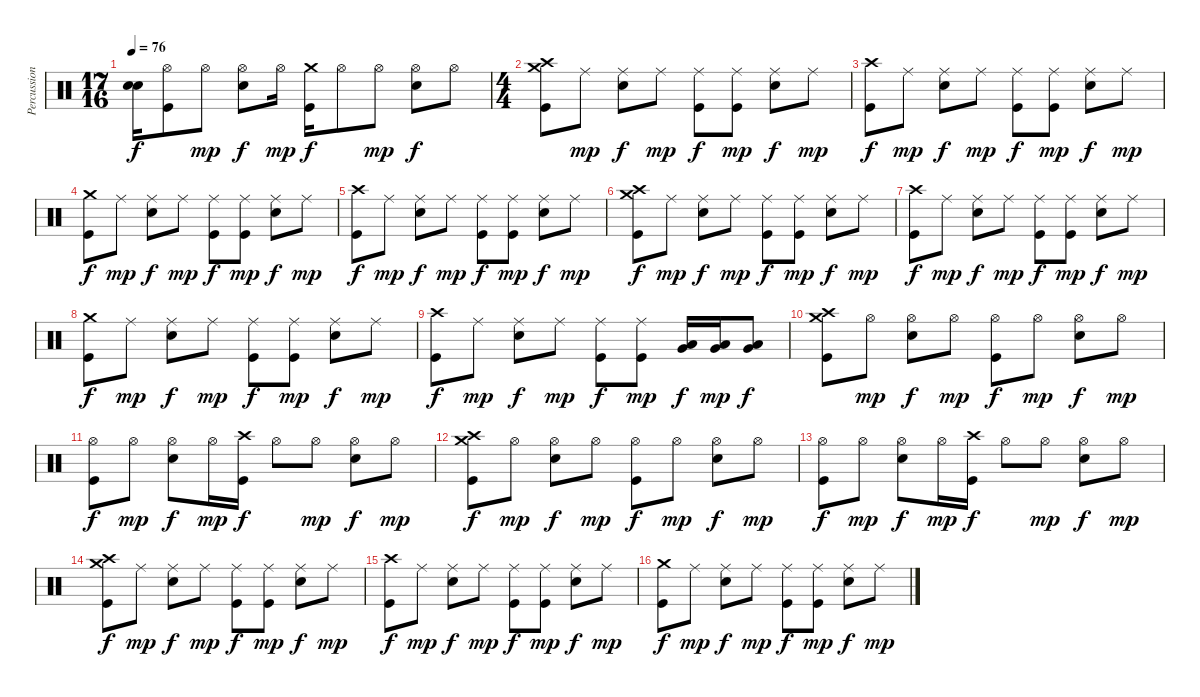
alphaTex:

\track ("Percussion" "Percussion") {instrument percussion}
\staff {score}
\articulation defaults
\ts (17 16)
\tempo 76
\clef neutral
\ks c
("Snare (hit)"{t} "Snare (hit)"{t}).16{dy f} ("Hi-Hat (open)" "Kick (hit)").8 "Hi-Hat (open)".8{dy mp} ("Hi-Hat (open)" "Electric Snare (hit)").8{dy f} "Hi-Hat (open)".16{dy mp} ("Crash medium (hit)" "Kick (hit)").16{dy f} "Hi-Hat (open)".8 "Hi-Hat (open)".8{dy mp} ("Hi-Hat (open)" "Electric Snare (hit)").8{dy f} "Hi-Hat (open)".8 |
\ts (4 4)
("Crash medium (hit)" "Crash high (hit)" "Kick (hit)").8 "Ride (middle)".8{dy mp} ("Ride (middle)" "Electric Snare (hit)").8{dy f} "Ride (middle)".8{dy mp} ("Ride (middle)" "Kick (hit)").8{dy f} ("Ride (middle)" "Kick (hit)").8{dy mp} ("Ride (middle)" "Electric Snare (hit)").8{dy f} "Ride (middle)".8{dy mp} |
("Crash high (hit)" "Kick (hit)").8{dy f} "Ride (middle)".8{dy mp} ("Ride (middle)" "Electric Snare (hit)").8{dy f} "Ride (middle)".8{dy mp} ("Ride (middle)" "Kick (hit)").8{dy f} ("Ride (middle)" "Kick (hit)").8{dy mp} ("Ride (middle)" "Electric Snare (hit)").8{dy f} "Ride (middle)".8{dy mp} |
("Crash medium (hit)" "Kick (hit)").8{dy f} "Ride (middle)".8{dy mp} ("Ride (middle)" "Electric Snare (hit)").8{dy f} "Ride (middle)".8{dy mp} ("Ride (middle)" "Kick (hit)").8{dy f} ("Ride (middle)" "Kick (hit)").8{dy mp} ("Ride (middle)" "Electric Snare (hit)").8{dy f} "Ride (middle)".8{dy mp} |
("Crash high (hit)" "Kick (hit)").8{dy f} "Ride (middle)".8{dy mp} ("Ride (middle)" "Electric Snare (hit)").8{dy f} "Ride (middle)".8{dy mp} ("Ride (middle)" "Kick (hit)").8{dy f} ("Ride (middle)" "Kick (hit)").8{dy mp} ("Ride (middle)" "Electric Snare (hit)").8{dy f} "Ride (middle)".8{dy mp} |
("Crash medium (hit)" "Crash high (hit)" "Kick (hit)").8{dy f} "Ride (middle)".8{dy mp} ("Ride (middle)" "Electric Snare (hit)").8{dy f} "Ride (middle)".8{dy mp} ("Ride (middle)" "Kick (hit)").8{dy f} ("Ride (middle)" "Kick (hit)").8{dy mp} ("Ride (middle)" "Electric Snare (hit)").8{dy f} "Ride (middle)".8{dy mp} |
("Crash high (hit)" "Kick (hit)").8{dy f} "Ride (middle)".8{dy mp} ("Ride (middle)" "Electric Snare (hit)").8{dy f} "Ride (middle)".8{dy mp} ("Ride (middle)" "Kick (hit)").8{dy f} ("Ride (middle)" "Kick (hit)").8{dy mp} ("Ride (middle)" "Electric Snare (hit)").8{dy f} "Ride (middle)".8{dy mp} |
("Crash medium (hit)" "Kick (hit)").8{dy f} "Ride (middle)".8{dy mp} ("Ride (middle)" "Electric Snare (hit)").8{dy f} "Ride (middle)".8{dy mp} ("Ride (middle)" "Kick (hit)").8{dy f} ("Ride (middle)" "Kick (hit)").8{dy mp} ("Ride (middle)" "Electric Snare (hit)").8{dy f} "Ride (middle)".8{dy mp} |
("Crash high (hit)" "Kick (hit)").8{dy f} "Ride (middle)".8{dy mp} ("Ride (middle)" "Electric Snare (hit)").8{dy f} "Ride (middle)".8{dy mp} ("Ride (middle)" "Kick (hit)").8{dy f} ("Ride (middle)" "Kick (hit)").8{dy mp} ("Low Tom (hit)" "Very Low Tom (hit)").16{dy f} ("Low Tom (hit)" "Very Low Tom (hit)").16{dy mp} ("Low Tom (hit)" "Very Low Tom (hit)").8{dy f} |
("Crash high (hit)" "Crash medium (hit)" "Kick (hit)").8 "Hi-Hat (open)".8{dy mp} ("Hi-Hat (open)" "Electric Snare (hit)").8{dy f} "Hi-Hat (open)".8{dy mp} ("Hi-Hat (open)" "Kick (hit)").8{dy f} "Hi-Hat (open)".8{dy mp} ("Hi-Hat (open)" "Electric Snare (hit)").8{dy f} "Hi-Hat (open)".8{dy mp} |
("Hi-Hat (open)" "Kick (hit)").8{dy f} "Hi-Hat (open)".8{dy mp} ("Hi-Hat (open)" "Electric Snare (hit)").8{dy f} "Hi-Hat (open)".16{dy mp} ("Crash high (hit)" "Kick (hit)").16{dy f} "Hi-Hat (open)".8 "Hi-Hat (open)".8{dy mp} ("Hi-Hat (open)" "Electric Snare (hit)").8{dy f} "Hi-Hat (open)".8{dy mp} |
("Crash high (hit)" "Crash medium (hit)" "Kick (hit)").8{dy f} "Hi-Hat (open)".8{dy mp} ("Hi-Hat (open)" "Electric Snare (hit)").8{dy f} "Hi-Hat (open)".8{dy mp} ("Hi-Hat (open)" "Kick (hit)").8{dy f} "Hi-Hat (open)".8{dy mp} ("Hi-Hat (open)" "Electric Snare (hit)").8{dy f} "Hi-Hat (open)".8{dy mp} |
("Hi-Hat (open)" "Kick (hit)").8{dy f} "Hi-Hat (open)".8{dy mp} ("Hi-Hat (open)" "Electric Snare (hit)").8{dy f} "Hi-Hat (open)".16{dy mp} ("Crash high (hit)" "Kick (hit)").16{dy f} "Hi-Hat (open)".8 "Hi-Hat (open)".8{dy mp} ("Hi-Hat (open)" "Electric Snare (hit)").8{dy f} "Hi-Hat (open)".8{dy mp} |
("Crash medium (hit)" "Crash high (hit)" "Kick (hit)").8{dy f} "Ride (middle)".8{dy mp} ("Ride (middle)" "Electric Snare (hit)").8{dy f} "Ride (middle)".8{dy mp} ("Ride (middle)" "Kick (hit)").8{dy f} ("Ride (middle)" "Kick (hit)").8{dy mp} ("Ride (middle)" "Electric Snare (hit)").8{dy f} "Ride (middle)".8{dy mp} |
("Crash high (hit)" "Kick (hit)").8{dy f} "Ride (middle)".8{dy mp} ("Ride (middle)" "Electric Snare (hit)").8{dy f} "Ride (middle)".8{dy mp} ("Ride (middle)" "Kick (hit)").8{dy f} ("Ride (middle)" "Kick (hit)").8{dy mp} ("Ride (middle)" "Electric Snare (hit)").8{dy f} "Ride (middle)".8{dy mp} |
("Crash medium (hit)" "Kick (hit)").8{dy f} "Ride (middle)".8{dy mp} ("Ride (middle)" "Electric Snare (hit)").8{dy f} "Ride (middle)".8{dy mp} ("Ride (middle)" "Kick (hit)").8{dy f} ("Ride (middle)" "Kick (hit)").8{dy mp} ("Ride (middle)" "Electric Snare (hit)").8{dy f} "Ride (middle)".8{dy mp}
